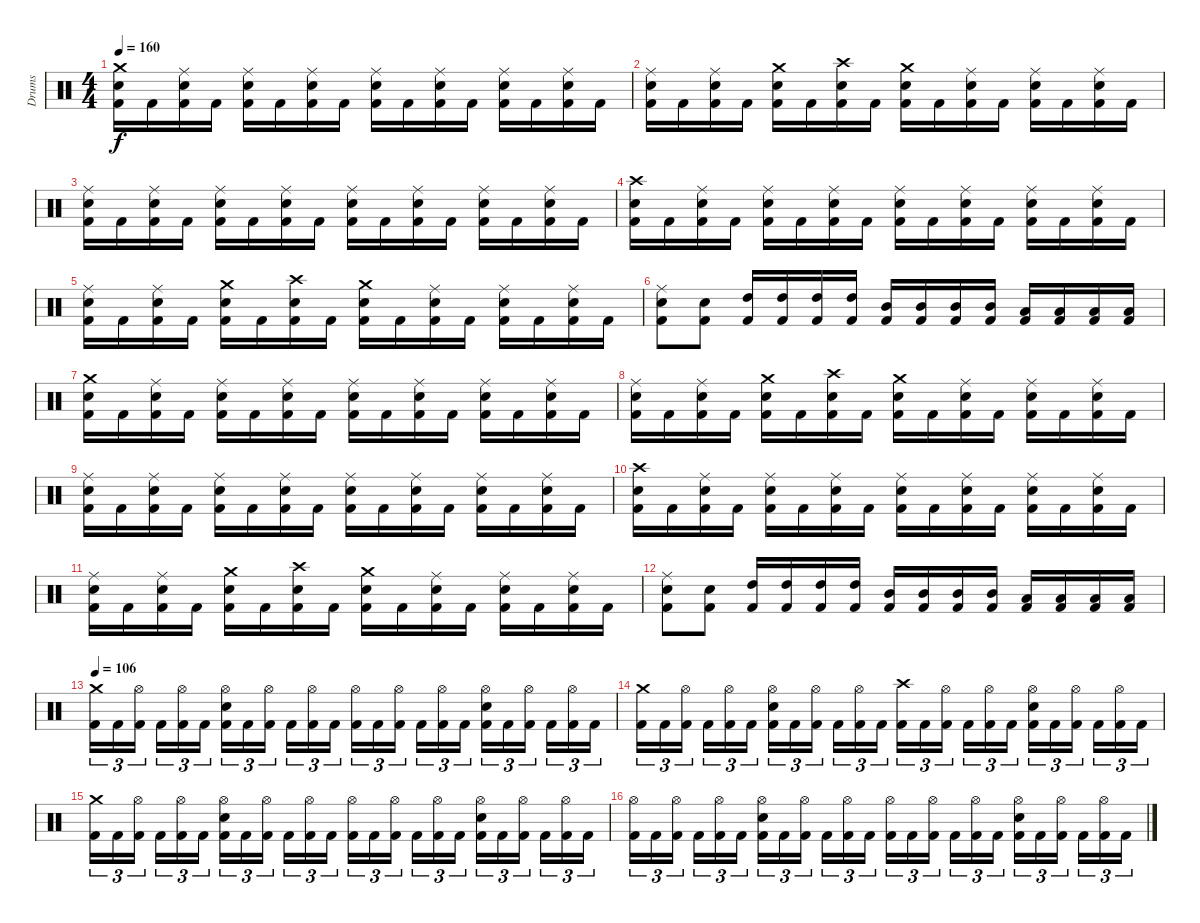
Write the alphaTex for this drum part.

\track ("Drums" "Drums") {instrument percussion}
\staff {score}
\articulation defaults
\ts (4 4)
\tempo 160
\clef neutral
\ks c
("Kick (hit) 2" "Electric Snare (hit)" "Crash medium (hit)").16{dy f} "Kick (hit) 2".16 ("Kick (hit) 2" "Electric Snare (hit)" "Ride (middle)").16 "Kick (hit) 2".16 ("Kick (hit) 2" "Electric Snare (hit)" "Ride (middle)").16 "Kick (hit) 2".16 ("Kick (hit) 2" "Electric Snare (hit)" "Ride (middle)").16 "Kick (hit) 2".16 ("Kick (hit) 2" "Electric Snare (hit)" "Ride (middle)").16 "Kick (hit) 2".16 ("Kick (hit) 2" "Electric Snare (hit)" "Ride (middle)").16 "Kick (hit) 2".16 ("Kick (hit) 2" "Electric Snare (hit)" "Ride (middle)").16 "Kick (hit) 2".16 ("Kick (hit) 2" "Electric Snare (hit)" "Ride (middle)").16 "Kick (hit) 2".16 |
("Kick (hit) 2" "Electric Snare (hit)" "Ride (middle)").16 "Kick (hit) 2".16 ("Kick (hit) 2" "Electric Snare (hit)" "Ride (middle)").16 "Kick (hit) 2".16 ("Kick (hit) 2" "Electric Snare (hit)" "Crash medium (hit)").16 "Kick (hit) 2".16 ("Kick (hit) 2" "Electric Snare (hit)" "Crash high (hit)").16 "Kick (hit) 2".16 ("Kick (hit) 2" "Electric Snare (hit)" "Crash medium (hit)").16 "Kick (hit) 2".16 ("Kick (hit) 2" "Electric Snare (hit)" "Ride (middle)").16 "Kick (hit) 2".16 ("Kick (hit) 2" "Electric Snare (hit)" "Ride (middle)").16 "Kick (hit) 2".16 ("Kick (hit) 2" "Electric Snare (hit)" "Ride (middle)").16 "Kick (hit) 2".16 |
("Kick (hit) 2" "Electric Snare (hit)" "Ride (middle)").16 "Kick (hit) 2".16 ("Kick (hit) 2" "Electric Snare (hit)" "Ride (middle)").16 "Kick (hit) 2".16 ("Kick (hit) 2" "Electric Snare (hit)" "Ride (middle)").16 "Kick (hit) 2".16 ("Kick (hit) 2" "Electric Snare (hit)" "Ride (middle)").16 "Kick (hit) 2".16 ("Kick (hit) 2" "Electric Snare (hit)" "Ride (middle)").16 "Kick (hit) 2".16 ("Kick (hit) 2" "Electric Snare (hit)" "Ride (middle)").16 "Kick (hit) 2".16 ("Kick (hit) 2" "Electric Snare (hit)" "Ride (middle)").16 "Kick (hit) 2".16 ("Kick (hit) 2" "Electric Snare (hit)" "Ride (middle)").16 "Kick (hit) 2".16 |
("Kick (hit) 2" "Electric Snare (hit)" "Crash high (hit)").16 "Kick (hit) 2".16 ("Kick (hit) 2" "Electric Snare (hit)" "Ride (middle)").16 "Kick (hit) 2".16 ("Kick (hit) 2" "Electric Snare (hit)" "Ride (middle)").16 "Kick (hit) 2".16 ("Kick (hit) 2" "Electric Snare (hit)" "Ride (middle)").16 "Kick (hit) 2".16 ("Kick (hit) 2" "Electric Snare (hit)" "Ride (middle)").16 "Kick (hit) 2".16 ("Kick (hit) 2" "Electric Snare (hit)" "Ride (middle)").16 "Kick (hit) 2".16 ("Kick (hit) 2" "Electric Snare (hit)" "Ride (middle)").16 "Kick (hit) 2".16 ("Kick (hit) 2" "Electric Snare (hit)" "Ride (middle)").16 "Kick (hit) 2".16 |
("Kick (hit) 2" "Electric Snare (hit)" "Ride (middle)").16 "Kick (hit) 2".16 ("Kick (hit) 2" "Electric Snare (hit)" "Ride (middle)").16 "Kick (hit) 2".16 ("Kick (hit) 2" "Electric Snare (hit)" "Crash medium (hit)").16 "Kick (hit) 2".16 ("Kick (hit) 2" "Electric Snare (hit)" "Crash high (hit)").16 "Kick (hit) 2".16 ("Kick (hit) 2" "Electric Snare (hit)" "Crash medium (hit)").16 "Kick (hit) 2".16 ("Kick (hit) 2" "Electric Snare (hit)" "Ride (middle)").16 "Kick (hit) 2".16 ("Kick (hit) 2" "Electric Snare (hit)" "Ride (middle)").16 "Kick (hit) 2".16 ("Kick (hit) 2" "Electric Snare (hit)" "Ride (middle)").16 "Kick (hit) 2".16 |
("Kick (hit) 2" "Electric Snare (hit)" "Ride (middle)").8 ("Kick (hit) 2" "Electric Snare (hit)").8 ("Kick (hit) 2" "High Tom (hit)").16 ("Kick (hit) 2" "High Tom (hit)").16 ("Kick (hit) 2" "High Tom (hit)").16 ("Kick (hit) 2" "High Tom (hit)").16 ("Kick (hit) 2" "Mid Tom (hit)").16 ("Kick (hit) 2" "Mid Tom (hit)").16 ("Kick (hit) 2" "Mid Tom (hit)").16 ("Kick (hit) 2" "Mid Tom (hit)").16 ("Kick (hit) 2" "Low Tom (hit)").16 ("Kick (hit) 2" "Low Tom (hit)").16 ("Kick (hit) 2" "Low Tom (hit)").16 ("Kick (hit) 2" "Low Tom (hit)").16 |
("Kick (hit) 2" "Electric Snare (hit)" "Crash medium (hit)").16 "Kick (hit) 2".16 ("Kick (hit) 2" "Electric Snare (hit)" "Ride (middle)").16 "Kick (hit) 2".16 ("Kick (hit) 2" "Electric Snare (hit)" "Ride (middle)").16 "Kick (hit) 2".16 ("Kick (hit) 2" "Electric Snare (hit)" "Ride (middle)").16 "Kick (hit) 2".16 ("Kick (hit) 2" "Electric Snare (hit)" "Ride (middle)").16 "Kick (hit) 2".16 ("Kick (hit) 2" "Electric Snare (hit)" "Ride (middle)").16 "Kick (hit) 2".16 ("Kick (hit) 2" "Electric Snare (hit)" "Ride (middle)").16 "Kick (hit) 2".16 ("Kick (hit) 2" "Electric Snare (hit)" "Ride (middle)").16 "Kick (hit) 2".16 |
("Kick (hit) 2" "Electric Snare (hit)" "Ride (middle)").16 "Kick (hit) 2".16 ("Kick (hit) 2" "Electric Snare (hit)" "Ride (middle)").16 "Kick (hit) 2".16 ("Kick (hit) 2" "Electric Snare (hit)" "Crash medium (hit)").16 "Kick (hit) 2".16 ("Kick (hit) 2" "Electric Snare (hit)" "Crash high (hit)").16 "Kick (hit) 2".16 ("Kick (hit) 2" "Electric Snare (hit)" "Crash medium (hit)").16 "Kick (hit) 2".16 ("Kick (hit) 2" "Electric Snare (hit)" "Ride (middle)").16 "Kick (hit) 2".16 ("Kick (hit) 2" "Electric Snare (hit)" "Ride (middle)").16 "Kick (hit) 2".16 ("Kick (hit) 2" "Electric Snare (hit)" "Ride (middle)").16 "Kick (hit) 2".16 |
("Kick (hit) 2" "Electric Snare (hit)" "Ride (middle)").16 "Kick (hit) 2".16 ("Kick (hit) 2" "Electric Snare (hit)" "Ride (middle)").16 "Kick (hit) 2".16 ("Kick (hit) 2" "Electric Snare (hit)" "Ride (middle)").16 "Kick (hit) 2".16 ("Kick (hit) 2" "Electric Snare (hit)" "Ride (middle)").16 "Kick (hit) 2".16 ("Kick (hit) 2" "Electric Snare (hit)" "Ride (middle)").16 "Kick (hit) 2".16 ("Kick (hit) 2" "Electric Snare (hit)" "Ride (middle)").16 "Kick (hit) 2".16 ("Kick (hit) 2" "Electric Snare (hit)" "Ride (middle)").16 "Kick (hit) 2".16 ("Kick (hit) 2" "Electric Snare (hit)" "Ride (middle)").16 "Kick (hit) 2".16 |
("Kick (hit) 2" "Electric Snare (hit)" "Crash high (hit)").16 "Kick (hit) 2".16 ("Kick (hit) 2" "Electric Snare (hit)" "Ride (middle)").16 "Kick (hit) 2".16 ("Kick (hit) 2" "Electric Snare (hit)" "Ride (middle)").16 "Kick (hit) 2".16 ("Kick (hit) 2" "Electric Snare (hit)" "Ride (middle)").16 "Kick (hit) 2".16 ("Kick (hit) 2" "Electric Snare (hit)" "Ride (middle)").16 "Kick (hit) 2".16 ("Kick (hit) 2" "Electric Snare (hit)" "Ride (middle)").16 "Kick (hit) 2".16 ("Kick (hit) 2" "Electric Snare (hit)" "Ride (middle)").16 "Kick (hit) 2".16 ("Kick (hit) 2" "Electric Snare (hit)" "Ride (middle)").16 "Kick (hit) 2".16 |
("Kick (hit) 2" "Electric Snare (hit)" "Ride (middle)").16 "Kick (hit) 2".16 ("Kick (hit) 2" "Electric Snare (hit)" "Ride (middle)").16 "Kick (hit) 2".16 ("Kick (hit) 2" "Electric Snare (hit)" "Crash medium (hit)").16 "Kick (hit) 2".16 ("Kick (hit) 2" "Electric Snare (hit)" "Crash high (hit)").16 "Kick (hit) 2".16 ("Kick (hit) 2" "Electric Snare (hit)" "Crash medium (hit)").16 "Kick (hit) 2".16 ("Kick (hit) 2" "Electric Snare (hit)" "Ride (middle)").16 "Kick (hit) 2".16 ("Kick (hit) 2" "Electric Snare (hit)" "Ride (middle)").16 "Kick (hit) 2".16 ("Kick (hit) 2" "Electric Snare (hit)" "Ride (middle)").16 "Kick (hit) 2".16 |
("Kick (hit) 2" "Electric Snare (hit)" "Ride (middle)").8 ("Kick (hit) 2" "Electric Snare (hit)").8 ("Kick (hit) 2" "High Tom (hit)").16 ("Kick (hit) 2" "High Tom (hit)").16 ("Kick (hit) 2" "High Tom (hit)").16 ("Kick (hit) 2" "High Tom (hit)").16 ("Kick (hit) 2" "Mid Tom (hit)").16 ("Kick (hit) 2" "Mid Tom (hit)").16 ("Kick (hit) 2" "Mid Tom (hit)").16 ("Kick (hit) 2" "Mid Tom (hit)").16 ("Kick (hit) 2" "Low Tom (hit)").16 ("Kick (hit) 2" "Low Tom (hit)").16 ("Kick (hit) 2" "Low Tom (hit)").16 ("Kick (hit) 2" "Low Tom (hit)").16 |
\tempo 106
("Kick (hit) 2" "Crash medium (hit)").16{tu (3 2)} "Kick (hit) 2".16{tu (3 2)} ("Kick (hit) 2" "Hi-Hat (open)").16{tu (3 2)} "Kick (hit) 2".16{tu (3 2)} ("Kick (hit) 2" "Hi-Hat (open)").16{tu (3 2)} "Kick (hit) 2".16{tu (3 2)} ("Kick (hit) 2" "Electric Snare (hit)" "Hi-Hat (open)").16{tu (3 2)} "Kick (hit) 2".16{tu (3 2)} ("Kick (hit) 2" "Hi-Hat (open)").16{tu (3 2)} "Kick (hit) 2".16{tu (3 2)} ("Kick (hit) 2" "Hi-Hat (open)").16{tu (3 2)} "Kick (hit) 2".16{tu (3 2)} ("Kick (hit) 2" "Hi-Hat (open)").16{tu (3 2)} "Kick (hit) 2".16{tu (3 2)} ("Kick (hit) 2" "Hi-Hat (open)").16{tu (3 2)} "Kick (hit) 2".16{tu (3 2)} ("Kick (hit) 2" "Hi-Hat (open)").16{tu (3 2)} "Kick (hit) 2".16{tu (3 2)} ("Kick (hit) 2" "Electric Snare (hit)" "Hi-Hat (open)").16{tu (3 2)} "Kick (hit) 2".16{tu (3 2)} ("Kick (hit) 2" "Hi-Hat (open)").16{tu (3 2)} "Kick (hit) 2".16{tu (3 2)} ("Kick (hit) 2" "Hi-Hat (open)").16{tu (3 2)} "Kick (hit) 2".16{tu (3 2)} |
("Kick (hit) 2" "Crash medium (hit)").16{tu (3 2)} "Kick (hit) 2".16{tu (3 2)} ("Kick (hit) 2" "Hi-Hat (open)").16{tu (3 2)} "Kick (hit) 2".16{tu (3 2)} ("Kick (hit) 2" "Hi-Hat (open)").16{tu (3 2)} "Kick (hit) 2".16{tu (3 2)} ("Kick (hit) 2" "Electric Snare (hit)" "Hi-Hat (open)").16{tu (3 2)} "Kick (hit) 2".16{tu (3 2)} ("Kick (hit) 2" "Hi-Hat (open)").16{tu (3 2)} "Kick (hit) 2".16{tu (3 2)} ("Kick (hit) 2" "Hi-Hat (open)").16{tu (3 2)} "Kick (hit) 2".16{tu (3 2)} ("Kick (hit) 2" "Crash high (hit)").16{tu (3 2)} "Kick (hit) 2".16{tu (3 2)} ("Kick (hit) 2" "Hi-Hat (open)").16{tu (3 2)} "Kick (hit) 2".16{tu (3 2)} ("Kick (hit) 2" "Hi-Hat (open)").16{tu (3 2)} "Kick (hit) 2".16{tu (3 2)} ("Kick (hit) 2" "Electric Snare (hit)" "Hi-Hat (open)").16{tu (3 2)} "Kick (hit) 2".16{tu (3 2)} ("Kick (hit) 2" "Hi-Hat (open)").16{tu (3 2)} "Kick (hit) 2".16{tu (3 2)} ("Kick (hit) 2" "Hi-Hat (open)").16{tu (3 2)} "Kick (hit) 2".16{tu (3 2)} |
("Kick (hit) 2" "Crash medium (hit)").16{tu (3 2)} "Kick (hit) 2".16{tu (3 2)} ("Kick (hit) 2" "Hi-Hat (open)").16{tu (3 2)} "Kick (hit) 2".16{tu (3 2)} ("Kick (hit) 2" "Hi-Hat (open)").16{tu (3 2)} "Kick (hit) 2".16{tu (3 2)} ("Kick (hit) 2" "Electric Snare (hit)" "Hi-Hat (open)").16{tu (3 2)} "Kick (hit) 2".16{tu (3 2)} ("Kick (hit) 2" "Hi-Hat (open)").16{tu (3 2)} "Kick (hit) 2".16{tu (3 2)} ("Kick (hit) 2" "Hi-Hat (open)").16{tu (3 2)} "Kick (hit) 2".16{tu (3 2)} ("Kick (hit) 2" "Hi-Hat (open)").16{tu (3 2)} "Kick (hit) 2".16{tu (3 2)} ("Kick (hit) 2" "Hi-Hat (open)").16{tu (3 2)} "Kick (hit) 2".16{tu (3 2)} ("Kick (hit) 2" "Hi-Hat (open)").16{tu (3 2)} "Kick (hit) 2".16{tu (3 2)} ("Kick (hit) 2" "Electric Snare (hit)" "Hi-Hat (open)").16{tu (3 2)} "Kick (hit) 2".16{tu (3 2)} ("Kick (hit) 2" "Hi-Hat (open)").16{tu (3 2)} "Kick (hit) 2".16{tu (3 2)} ("Kick (hit) 2" "Hi-Hat (open)").16{tu (3 2)} "Kick (hit) 2".16{tu (3 2)} |
("Kick (hit) 2" "Hi-Hat (open)").16{tu (3 2)} "Kick (hit) 2".16{tu (3 2)} ("Kick (hit) 2" "Hi-Hat (open)").16{tu (3 2)} "Kick (hit) 2".16{tu (3 2)} ("Kick (hit) 2" "Hi-Hat (open)").16{tu (3 2)} "Kick (hit) 2".16{tu (3 2)} ("Kick (hit) 2" "Electric Snare (hit)" "Hi-Hat (open)").16{tu (3 2)} "Kick (hit) 2".16{tu (3 2)} ("Kick (hit) 2" "Hi-Hat (open)").16{tu (3 2)} "Kick (hit) 2".16{tu (3 2)} ("Kick (hit) 2" "Hi-Hat (open)").16{tu (3 2)} "Kick (hit) 2".16{tu (3 2)} ("Kick (hit) 2" "Hi-Hat (open)").16{tu (3 2)} "Kick (hit) 2".16{tu (3 2)} ("Kick (hit) 2" "Hi-Hat (open)").16{tu (3 2)} "Kick (hit) 2".16{tu (3 2)} ("Kick (hit) 2" "Hi-Hat (open)").16{tu (3 2)} "Kick (hit) 2".16{tu (3 2)} ("Kick (hit) 2" "Electric Snare (hit)" "Hi-Hat (open)").16{tu (3 2)} "Kick (hit) 2".16{tu (3 2)} ("Kick (hit) 2" "Hi-Hat (open)").16{tu (3 2)} "Kick (hit) 2".16{tu (3 2)} ("Kick (hit) 2" "Hi-Hat (open)").16{tu (3 2)} "Kick (hit) 2".16{tu (3 2)}
